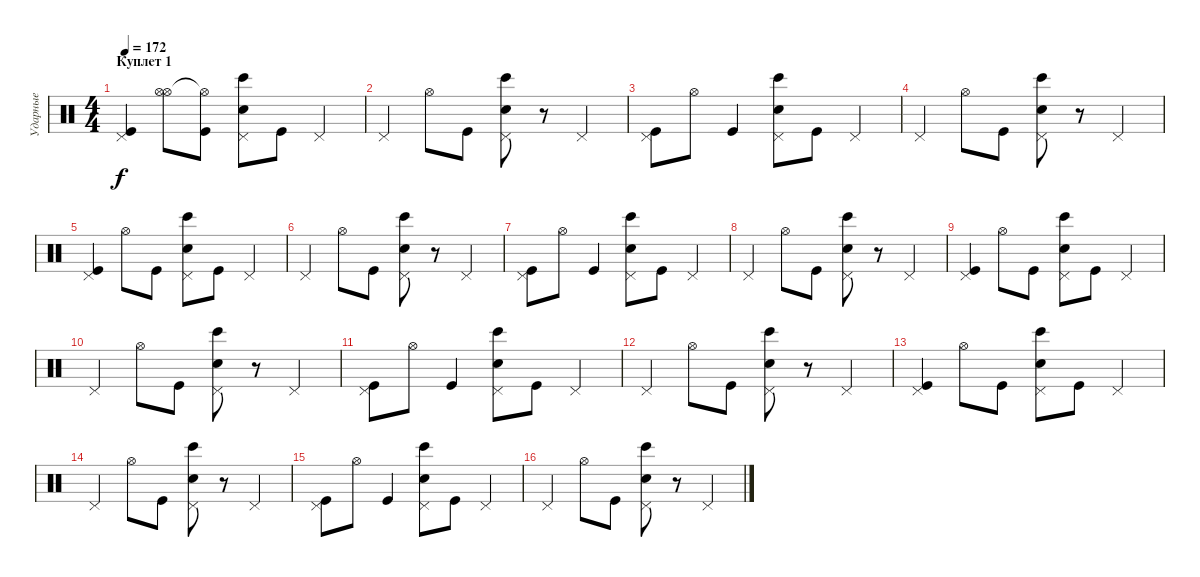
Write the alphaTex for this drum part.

\track ("Ударные" "Ударные") {instrument percussion}
\staff {score}
\articulation defaults
\ts (4 4)
\section ("" "Куплет 1")
\tempo 172
\clef neutral
\ks c
("Pedal Hi-Hat (hit)" "Kick (hit)").4{dy f} ("Hi-Hat (open)" "Hi-Hat (open)").8 ("Hi-Hat (open)"{t} "Kick (hit)").8 ("Pedal Hi-Hat (hit)" "Hand Clap (hit)" "Bongo High (hit)").8 "Kick (hit)".8 "Pedal Hi-Hat (hit)".4 |
"Pedal Hi-Hat (hit)".4 "Hi-Hat (open)".8 "Kick (hit)".8 ("Pedal Hi-Hat (hit)" "Hand Clap (hit)" "Bongo High (hit)").8 r.8 "Pedal Hi-Hat (hit)".4 |
("Pedal Hi-Hat (hit)" "Kick (hit)").8 "Hi-Hat (open)".8 "Kick (hit)".4 ("Pedal Hi-Hat (hit)" "Hand Clap (hit)" "Bongo High (hit)").8 "Kick (hit)".8 "Pedal Hi-Hat (hit)".4 |
"Pedal Hi-Hat (hit)".4 "Hi-Hat (open)".8 "Kick (hit)".8 ("Pedal Hi-Hat (hit)" "Hand Clap (hit)" "Bongo High (hit)").8 r.8 "Pedal Hi-Hat (hit)".4 |
("Pedal Hi-Hat (hit)" "Kick (hit)").4 "Hi-Hat (open)".8 "Kick (hit)".8 ("Pedal Hi-Hat (hit)" "Hand Clap (hit)" "Bongo High (hit)").8 "Kick (hit)".8 "Pedal Hi-Hat (hit)".4 |
"Pedal Hi-Hat (hit)".4 "Hi-Hat (open)".8 "Kick (hit)".8 ("Pedal Hi-Hat (hit)" "Hand Clap (hit)" "Bongo High (hit)").8 r.8 "Pedal Hi-Hat (hit)".4 |
("Pedal Hi-Hat (hit)" "Kick (hit)").8 "Hi-Hat (open)".8 "Kick (hit)".4 ("Pedal Hi-Hat (hit)" "Hand Clap (hit)" "Bongo High (hit)").8 "Kick (hit)".8 "Pedal Hi-Hat (hit)".4 |
"Pedal Hi-Hat (hit)".4 "Hi-Hat (open)".8 "Kick (hit)".8 ("Pedal Hi-Hat (hit)" "Hand Clap (hit)" "Bongo High (hit)").8 r.8 "Pedal Hi-Hat (hit)".4 |
("Pedal Hi-Hat (hit)" "Kick (hit)").4 "Hi-Hat (open)".8 "Kick (hit)".8 ("Pedal Hi-Hat (hit)" "Hand Clap (hit)" "Bongo High (hit)").8 "Kick (hit)".8 "Pedal Hi-Hat (hit)".4 |
"Pedal Hi-Hat (hit)".4 "Hi-Hat (open)".8 "Kick (hit)".8 ("Pedal Hi-Hat (hit)" "Hand Clap (hit)" "Bongo High (hit)").8 r.8 "Pedal Hi-Hat (hit)".4 |
("Pedal Hi-Hat (hit)" "Kick (hit)").8 "Hi-Hat (open)".8 "Kick (hit)".4 ("Pedal Hi-Hat (hit)" "Hand Clap (hit)" "Bongo High (hit)").8 "Kick (hit)".8 "Pedal Hi-Hat (hit)".4 |
"Pedal Hi-Hat (hit)".4 "Hi-Hat (open)".8 "Kick (hit)".8 ("Pedal Hi-Hat (hit)" "Hand Clap (hit)" "Bongo High (hit)").8 r.8 "Pedal Hi-Hat (hit)".4 |
("Pedal Hi-Hat (hit)" "Kick (hit)").4 "Hi-Hat (open)".8 "Kick (hit)".8 ("Pedal Hi-Hat (hit)" "Hand Clap (hit)" "Bongo High (hit)").8 "Kick (hit)".8 "Pedal Hi-Hat (hit)".4 |
"Pedal Hi-Hat (hit)".4 "Hi-Hat (open)".8 "Kick (hit)".8 ("Pedal Hi-Hat (hit)" "Hand Clap (hit)" "Bongo High (hit)").8 r.8 "Pedal Hi-Hat (hit)".4 |
("Pedal Hi-Hat (hit)" "Kick (hit)").8 "Hi-Hat (open)".8 "Kick (hit)".4 ("Pedal Hi-Hat (hit)" "Hand Clap (hit)" "Bongo High (hit)").8 "Kick (hit)".8 "Pedal Hi-Hat (hit)".4 |
"Pedal Hi-Hat (hit)".4 "Hi-Hat (open)".8 "Kick (hit)".8 ("Pedal Hi-Hat (hit)" "Hand Clap (hit)" "Bongo High (hit)").8 r.8 "Pedal Hi-Hat (hit)".4
